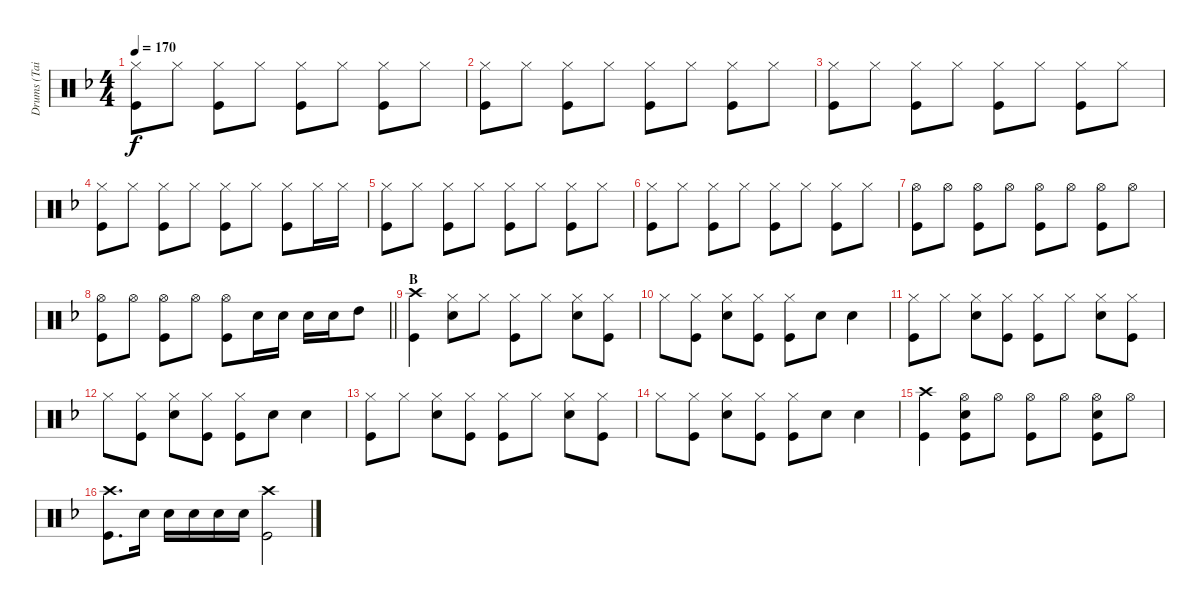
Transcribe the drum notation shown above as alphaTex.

\track ("Drums (Tainaka Ritsu)" "Drums (Tai") {instrument percussion}
\staff {score}
\articulation defaults
\ts (4 4)
\tempo 170
\clef neutral
\ks f
("Hi-Hat (closed)" "Kick (hit)").8{dy f} "Hi-Hat (closed)".8 ("Hi-Hat (closed)" "Kick (hit)").8 "Hi-Hat (closed)".8 ("Hi-Hat (closed)" "Kick (hit)").8 "Hi-Hat (closed)".8 ("Hi-Hat (closed)" "Kick (hit)").8 "Hi-Hat (closed)".8 |
("Hi-Hat (closed)" "Kick (hit)").8 "Hi-Hat (closed)".8 ("Hi-Hat (closed)" "Kick (hit)").8 "Hi-Hat (closed)".8 ("Hi-Hat (closed)" "Kick (hit)").8 "Hi-Hat (closed)".8 ("Hi-Hat (closed)" "Kick (hit)").8 "Hi-Hat (closed)".8 |
("Hi-Hat (closed)" "Kick (hit)").8 "Hi-Hat (closed)".8 ("Hi-Hat (closed)" "Kick (hit)").8 "Hi-Hat (closed)".8 ("Hi-Hat (closed)" "Kick (hit)").8 "Hi-Hat (closed)".8 ("Hi-Hat (closed)" "Kick (hit)").8 "Hi-Hat (closed)".8 |
("Hi-Hat (closed)" "Kick (hit)").8 "Hi-Hat (closed)".8 ("Hi-Hat (closed)" "Kick (hit)").8 "Hi-Hat (closed)".8 ("Hi-Hat (closed)" "Kick (hit)").8 "Hi-Hat (closed)".8 ("Hi-Hat (closed)" "Kick (hit)").8 "Hi-Hat (closed)".16 "Hi-Hat (closed)".16 |
("Hi-Hat (closed)" "Kick (hit)").8 "Hi-Hat (closed)".8 ("Hi-Hat (closed)" "Kick (hit)").8 "Hi-Hat (closed)".8 ("Hi-Hat (closed)" "Kick (hit)").8 "Hi-Hat (closed)".8 ("Hi-Hat (closed)" "Kick (hit)").8 "Hi-Hat (closed)".8 |
("Hi-Hat (closed)" "Kick (hit)").8 "Hi-Hat (closed)".8 ("Hi-Hat (closed)" "Kick (hit)").8 "Hi-Hat (closed)".8 ("Hi-Hat (closed)" "Kick (hit)").8 "Hi-Hat (closed)".8 ("Hi-Hat (closed)" "Kick (hit)").8 "Hi-Hat (closed)".8 |
("Hi-Hat (open)" "Kick (hit)").8 "Hi-Hat (open)".8 ("Hi-Hat (open)" "Kick (hit)").8 "Hi-Hat (open)".8 ("Hi-Hat (open)" "Kick (hit)").8 "Hi-Hat (open)".8 ("Hi-Hat (open)" "Kick (hit)").8 "Hi-Hat (open)".8 |
\barLineRight lightlight
("Hi-Hat (open)" "Kick (hit)").8 "Hi-Hat (open)".8 ("Hi-Hat (open)" "Kick (hit)").8 "Hi-Hat (open)".8 ("Hi-Hat (open)" "Kick (hit)").8 "Snare (hit) 2".16 "Snare (hit) 2".16 "Snare (hit) 2".16 "Snare (hit) 2".16 "High Tom (hit)".8 |
\section ("" "B")
("Crash high (hit)" "Kick (hit)").4 ("Hi-Hat (closed)" "Snare (hit) 2").8 "Hi-Hat (closed)".8 ("Hi-Hat (closed)" "Kick (hit)").8 "Hi-Hat (closed)".8 ("Hi-Hat (closed)" "Snare (hit) 2").8 ("Hi-Hat (closed)" "Kick (hit)").8 |
"Hi-Hat (closed)".8 ("Hi-Hat (closed)" "Kick (hit)").8 ("Hi-Hat (closed)" "Snare (hit) 2").8 ("Hi-Hat (closed)" "Kick (hit)").8 ("Hi-Hat (closed)" "Kick (hit)").8 "Snare (hit) 2".8 "Snare (hit) 2".4 |
("Hi-Hat (closed)" "Kick (hit)").8 "Hi-Hat (closed)".8 ("Hi-Hat (closed)" "Snare (hit) 2").8 ("Hi-Hat (closed)" "Kick (hit)").8 ("Hi-Hat (closed)" "Kick (hit)").8 "Hi-Hat (closed)".8 ("Hi-Hat (closed)" "Snare (hit) 2").8 ("Hi-Hat (closed)" "Kick (hit)").8 |
"Hi-Hat (closed)".8 ("Hi-Hat (closed)" "Kick (hit)").8 ("Hi-Hat (closed)" "Snare (hit) 2").8 ("Hi-Hat (closed)" "Kick (hit)").8 ("Hi-Hat (closed)" "Kick (hit)").8 "Snare (hit) 2".8 "Snare (hit) 2".4 |
("Hi-Hat (closed)" "Kick (hit)").8 "Hi-Hat (closed)".8 ("Hi-Hat (closed)" "Snare (hit) 2").8 ("Hi-Hat (closed)" "Kick (hit)").8 ("Hi-Hat (closed)" "Kick (hit)").8 "Hi-Hat (closed)".8 ("Hi-Hat (closed)" "Snare (hit) 2").8 ("Hi-Hat (closed)" "Kick (hit)").8 |
"Hi-Hat (closed)".8 ("Hi-Hat (closed)" "Kick (hit)").8 ("Hi-Hat (closed)" "Snare (hit) 2").8 ("Hi-Hat (closed)" "Kick (hit)").8 ("Hi-Hat (closed)" "Kick (hit)").8 "Snare (hit) 2".8 "Snare (hit) 2".4 |
("Crash high (hit)" "Kick (hit)").4 ("Hi-Hat (open)" "Snare (hit) 2" "Kick (hit)").8 "Hi-Hat (open)".8 ("Hi-Hat (open)" "Kick (hit)").8 "Hi-Hat (open)".8 ("Hi-Hat (open)" "Snare (hit) 2" "Kick (hit)").8 "Hi-Hat (open)".8 |
("Crash high (hit)" "Kick (hit)").8{d} "Snare (hit) 2".16 "Snare (hit) 2".16 "Snare (hit) 2".16 "Snare (hit) 2".16 "Snare (hit) 2".16 ("Crash high (hit)" "Kick (hit)").2
